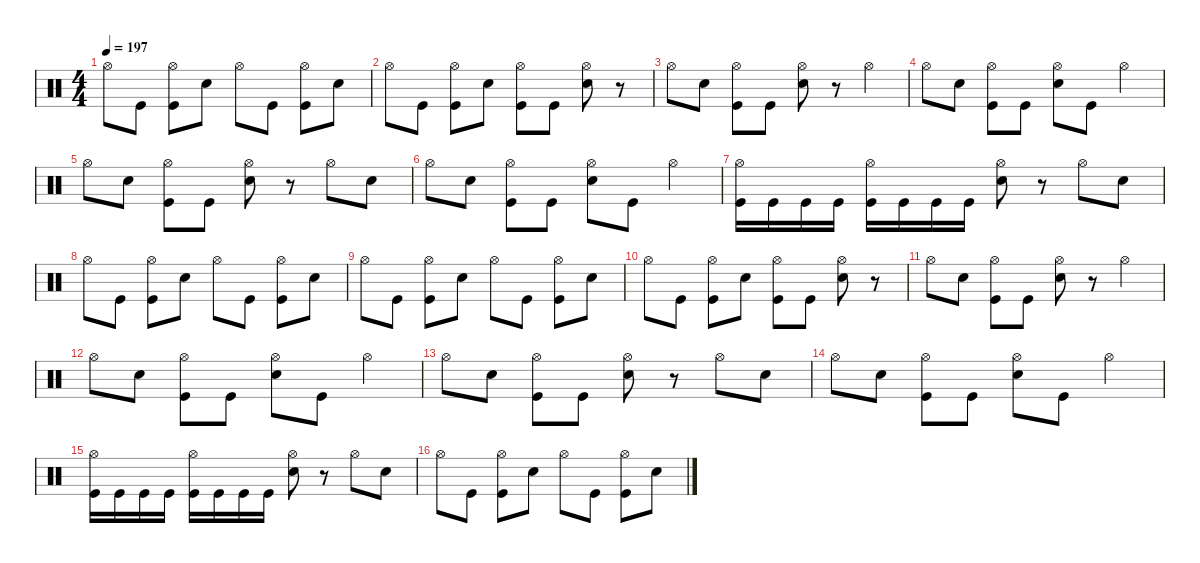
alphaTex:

\defaultSystemsLayout 4
\hideDynamics
\bracketExtendMode nobrackets
\singleTrackTrackNamePolicy hidden
\multiTrackTrackNamePolicy hidden
\firstSystemTrackNameMode fullname
\firstSystemTrackNameOrientation horizontal
\otherSystemsTrackNameOrientation horizontal
\track ("Drums" "drm.") {defaultSystemsLayout 4 instrument percussion}
\staff {score}
\articulation defaults
\ts (4 4)
\tempo 197
\clef neutral
\ks c "Hi-Hat (open)".8{dy mf beam Down} "Kick (hit)".8{dy f beam Down}
("Hi-Hat (open)" "Kick (hit)").8{dy mf beam Down} "Snare (hit) 2".8{dy f beam Down} "Hi-Hat (open)".8{dy mf beam Down} "Kick (hit)".8{dy f beam Down} ("Hi-Hat (open)" "Kick (hit)").8{dy mf beam Down} "Snare (hit) 2".8{dy f beam Down} |
"Hi-Hat (open)".8{dy mf beam Down} "Kick (hit)".8{dy f beam Down} ("Hi-Hat (open)" "Kick (hit)").8{dy mf beam Down} "Snare (hit) 2".8{dy f beam Down} ("Hi-Hat (open)" "Kick (hit)").8{dy mf beam Down} "Kick (hit)".8{dy f beam Down} ("Hi-Hat (open)" "Snare (hit) 2").8{dy mf beam Down} r.8{beam Down} |
"Hi-Hat (open)".8{beam Down} "Snare (hit) 2".8{dy f beam Down} ("Hi-Hat (open)" "Kick (hit)").8{dy mf beam Down} "Kick (hit)".8{dy f beam Down} ("Hi-Hat (open)" "Snare (hit) 2").8{dy mf beam Down} r.8{beam Down} "Hi-Hat (open)".4{beam Down} |
"Hi-Hat (open)".8{beam Down} "Snare (hit) 2".8{dy f beam Down} ("Hi-Hat (open)" "Kick (hit)").8{dy mf beam Down} "Kick (hit)".8{dy f beam Down} ("Hi-Hat (open)" "Snare (hit) 2").8{dy mf beam Down} "Kick (hit)".8{dy f beam Down} "Hi-Hat (open)".4{dy mf beam Down} |
"Hi-Hat (open)".8{beam Down} "Snare (hit) 2".8{dy f beam Down} ("Hi-Hat (open)" "Kick (hit)").8{dy mf beam Down} "Kick (hit)".8{dy f beam Down} ("Hi-Hat (open)" "Snare (hit) 2").8{dy mf beam Down} r.8{beam Down} "Hi-Hat (open)".8{beam Down} "Snare (hit) 2".8{dy f beam Down} |
"Hi-Hat (open)".8{dy mf beam Down} "Snare (hit) 2".8{dy f beam Down} ("Hi-Hat (open)" "Kick (hit)").8{dy mf beam Down} "Kick (hit)".8{dy f beam Down} ("Hi-Hat (open)" "Snare (hit) 2").8{dy mf beam Down} "Kick (hit)".8{dy f beam Down} "Hi-Hat (open)".4{dy mf beam Down} |
("Hi-Hat (open)" "Kick (hit)").16{beam Down} "Kick (hit)".16{dy f beam Down} "Kick (hit)".16{beam Down} "Kick (hit)".16{beam Down} ("Hi-Hat (open)" "Kick (hit)").16{dy mf beam Down} "Kick (hit)".16{dy f beam Down} "Kick (hit)".16{beam Down} "Kick (hit)".16{beam Down} ("Hi-Hat (open)" "Snare (hit) 2").8{dy mf beam Down} r.8{beam Down} "Hi-Hat (open)".8{beam Down} "Snare (hit) 2".8{dy f beam Down} |
"Hi-Hat (open)".8{dy mf beam Down} "Kick (hit)".8{dy f beam Down} ("Hi-Hat (open)" "Kick (hit)").8{dy mf beam Down} "Snare (hit) 2".8{dy f beam Down} "Hi-Hat (open)".8{dy mf beam Down} "Kick (hit)".8{dy f beam Down} ("Hi-Hat (open)" "Kick (hit)").8{dy mf beam Down} "Snare (hit) 2".8{dy f beam Down} |
"Hi-Hat (open)".8{dy mf beam Down} "Kick (hit)".8{dy f beam Down} ("Hi-Hat (open)" "Kick (hit)").8{dy mf beam Down} "Snare (hit) 2".8{dy f beam Down} "Hi-Hat (open)".8{dy mf beam Down} "Kick (hit)".8{dy f beam Down} ("Hi-Hat (open)" "Kick (hit)").8{dy mf beam Down} "Snare (hit) 2".8{dy f beam Down} |
"Hi-Hat (open)".8{dy mf beam Down} "Kick (hit)".8{dy f beam Down} ("Hi-Hat (open)" "Kick (hit)").8{dy mf beam Down} "Snare (hit) 2".8{dy f beam Down} ("Hi-Hat (open)" "Kick (hit)").8{dy mf beam Down} "Kick (hit)".8{dy f beam Down} ("Hi-Hat (open)" "Snare (hit) 2").8{dy mf beam Down} r.8{beam Down} |
"Hi-Hat (open)".8{beam Down} "Snare (hit) 2".8{dy f beam Down} ("Hi-Hat (open)" "Kick (hit)").8{dy mf beam Down} "Kick (hit)".8{dy f beam Down} ("Hi-Hat (open)" "Snare (hit) 2").8{dy mf beam Down} r.8{beam Down} "Hi-Hat (open)".4{beam Down} |
"Hi-Hat (open)".8{beam Down} "Snare (hit) 2".8{dy f beam Down} ("Hi-Hat (open)" "Kick (hit)").8{dy mf beam Down} "Kick (hit)".8{dy f beam Down} ("Hi-Hat (open)" "Snare (hit) 2").8{dy mf beam Down} "Kick (hit)".8{dy f beam Down} "Hi-Hat (open)".4{dy mf beam Down} |
"Hi-Hat (open)".8{beam Down} "Snare (hit) 2".8{dy f beam Down} ("Hi-Hat (open)" "Kick (hit)").8{dy mf beam Down} "Kick (hit)".8{dy f beam Down} ("Hi-Hat (open)" "Snare (hit) 2").8{dy mf beam Down} r.8{beam Down} "Hi-Hat (open)".8{beam Down} "Snare (hit) 2".8{dy f beam Down} |
"Hi-Hat (open)".8{dy mf beam Down} "Snare (hit) 2".8{dy f beam Down} ("Hi-Hat (open)" "Kick (hit)").8{dy mf beam Down} "Kick (hit)".8{dy f beam Down} ("Hi-Hat (open)" "Snare (hit) 2").8{dy mf beam Down} "Kick (hit)".8{dy f beam Down} "Hi-Hat (open)".4{dy mf beam Down} |
("Hi-Hat (open)" "Kick (hit)").16{beam Down} "Kick (hit)".16{dy f beam Down} "Kick (hit)".16{beam Down} "Kick (hit)".16{beam Down} ("Hi-Hat (open)" "Kick (hit)").16{dy mf beam Down} "Kick (hit)".16{dy f beam Down} "Kick (hit)".16{beam Down} "Kick (hit)".16{beam Down} ("Hi-Hat (open)" "Snare (hit) 2").8{dy mf beam Down} r.8{beam Down} "Hi-Hat (open)".8{beam Down} "Snare (hit) 2".8{dy f beam Down} |
"Hi-Hat (open)".8{dy mf beam Down} "Kick (hit)".8{dy f beam Down} ("Hi-Hat (open)" "Kick (hit)").8{dy mf beam Down} "Snare (hit) 2".8{dy f beam Down} "Hi-Hat (open)".8{dy mf beam Down} "Kick (hit)".8{dy f beam Down} ("Hi-Hat (open)" "Kick (hit)").8{dy mf beam Down} "Snare (hit) 2".8{dy f beam Down}
